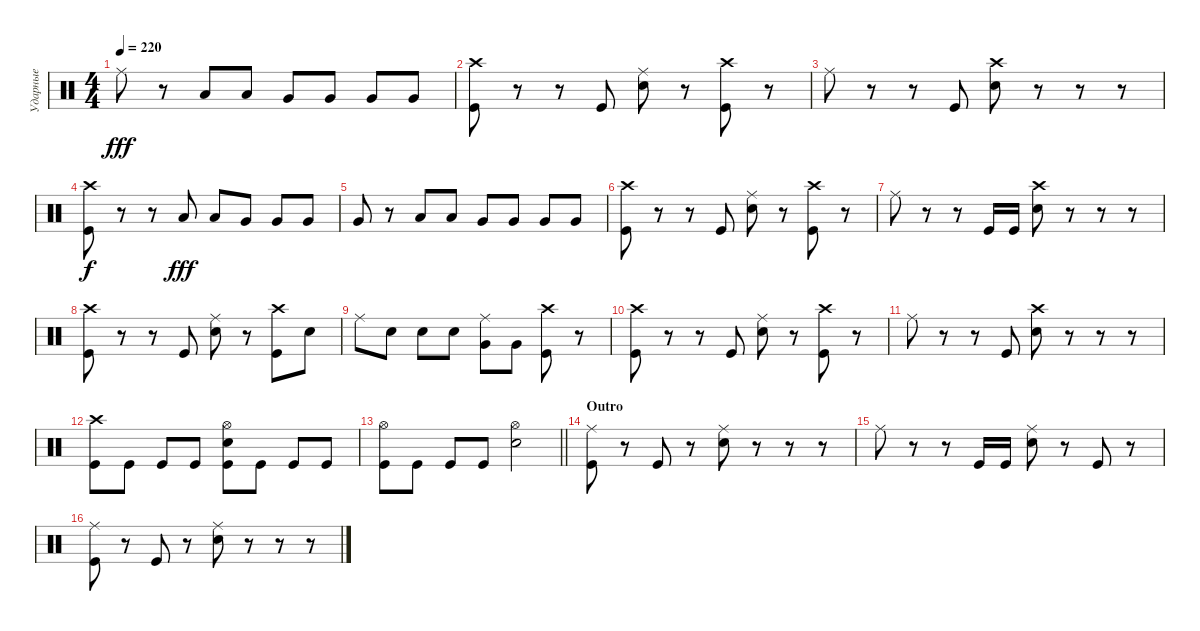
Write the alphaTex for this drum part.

\track ("Ударные" "Ударные") {instrument percussion}
\staff {score}
\articulation defaults
\ts (4 4)
\tempo 220
\clef neutral
\ks c "Ride (middle)".8{dy fff}
r.8 "Low Floor Tom (hit)".8 "Low Floor Tom (hit)".8 "Very Low Tom (hit)".8 "Very Low Tom (hit)".8 "Very Low Tom (hit)".8 "Very Low Tom (hit)".8 |
("Crash high (hit)" "Kick (hit)").8 r.8 r.8 "Kick (hit)".8 ("Ride (middle)" "Snare (hit) 2").8 r.8 ("Crash high (hit)" "Kick (hit)").8 r.8 |
"Ride (middle)".8 r.8 r.8 "Kick (hit)".8 ("Crash high (hit)" "Snare (hit) 2").8 r.8 r.8 r.8 |
("Crash high (hit)" "Kick (hit)").8{dy f} r.8 r.8 "Low Floor Tom (hit)".8{dy fff} "Low Floor Tom (hit)".8 "Very Low Tom (hit)".8 "Very Low Tom (hit)".8 "Very Low Tom (hit)".8 |
"Very Low Tom (hit)".8 r.8 "Low Floor Tom (hit)".8 "Low Floor Tom (hit)".8 "Very Low Tom (hit)".8 "Very Low Tom (hit)".8 "Very Low Tom (hit)".8 "Very Low Tom (hit)".8 |
("Crash high (hit)" "Kick (hit)").8 r.8 r.8 "Kick (hit)".8 ("Ride (middle)" "Snare (hit) 2").8 r.8 ("Crash high (hit)" "Kick (hit)").8 r.8 |
"Ride (middle)".8 r.8 r.8 "Kick (hit)".16 "Kick (hit)".16 ("Crash high (hit)" "Snare (hit) 2").8 r.8 r.8 r.8 |
("Crash high (hit)" "Kick (hit)").8 r.8 r.8 "Kick (hit)".8 ("Ride (middle)" "Snare (hit) 2").8 r.8 ("Crash high (hit)" "Kick (hit)").8 "Snare (hit) 2".8 |
"Ride (middle)".8 "Snare (hit) 2".8 "Snare (hit) 2".8 "Snare (hit) 2".8 ("Ride (middle)" "Very Low Tom (hit)").8 "Very Low Tom (hit)".8 ("Crash high (hit)" "Kick (hit)").8 r.8 |
("Crash high (hit)" "Kick (hit)").8 r.8 r.8 "Kick (hit)".8 ("Ride (middle)" "Snare (hit) 2").8 r.8 ("Crash high (hit)" "Kick (hit)").8 r.8 |
"Ride (middle)".8 r.8 r.8 "Kick (hit)".8 ("Crash high (hit)" "Snare (hit) 2").8 r.8 r.8 r.8 |
("Crash high (hit)" "Kick (hit)").8 "Kick (hit)".8 "Kick (hit)".8 "Kick (hit)".8 ("Hi-Hat (open)" "Snare (hit) 2" "Kick (hit)").8 "Kick (hit)".8 "Kick (hit)".8 "Kick (hit)".8 |
\barLineRight lightlight
("Hi-Hat (open)" "Kick (hit)").8 "Kick (hit)".8 "Kick (hit)".8 "Kick (hit)".8 ("Hi-Hat (open)" "Snare (hit) 2").2 |
\section ("" "Outro")
("Ride (middle)" "Kick (hit)").8 r.8 "Kick (hit)".8 r.8 ("Ride (middle)" "Snare (hit) 2").8 r.8 r.8 r.8 |
"Ride (middle)".8 r.8 r.8 "Kick (hit)".16 "Kick (hit)".16 ("Ride (middle)" "Snare (hit) 2").8 r.8 "Kick (hit)".8 r.8 |
("Ride (middle)" "Kick (hit)").8 r.8 "Kick (hit)".8 r.8 ("Ride (middle)" "Snare (hit) 2").8 r.8 r.8 r.8
